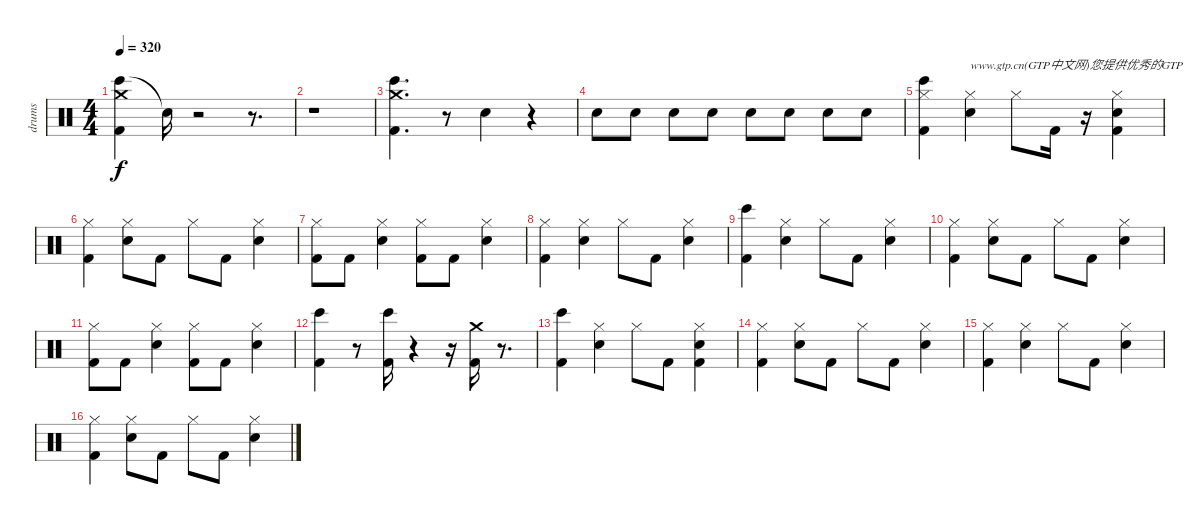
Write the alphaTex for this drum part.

\track ("drums" "drums") {instrument percussion}
\staff {score}
\articulation defaults
\ts (4 4)
\tempo 320
\clef neutral
\ks c
("Bongo High (hit)" "Kick (hit) 2" "Crash medium (hit)").4{dy f} "Snare (hit)"{t}.16 r.2 r.8{d} |
r.1 |
("Bongo High (hit)" "Kick (hit) 2" "Crash medium (hit)").4{d} r.8 "Snare (hit)".4 r.4 |
"Snare (hit) 2".8 "Snare (hit) 2".8 "Snare (hit) 2".8 "Snare (hit) 2".8 "Snare (hit) 2".8 "Snare (hit) 2".8 "Snare (hit) 2".8 "Snare (hit) 2".8 |
("Hi-Hat (closed)" "Bongo High (hit)" "Kick (hit) 2").4 ("Hi-Hat (closed)" "Snare (hit) 2").4{txt "www.gtp.cn(GTP中文网)您提供优秀的GTP"} "Hi-Hat (closed)".8 "Kick (hit) 2".16 r.16 ("Hi-Hat (closed)" "Kick (hit) 2" "Snare (hit) 2").4 |
("Hi-Hat (closed)" "Kick (hit) 2").4 ("Hi-Hat (closed)" "Snare (hit) 2").8 "Kick (hit) 2".8 "Hi-Hat (closed)".8 "Kick (hit) 2".8 ("Hi-Hat (closed)" "Snare (hit) 2").4 |
("Hi-Hat (closed)" "Kick (hit) 2").8 "Kick (hit) 2".8 ("Hi-Hat (closed)" "Snare (hit) 2").4 ("Hi-Hat (closed)" "Kick (hit) 2").8 "Kick (hit) 2".8 ("Hi-Hat (closed)" "Snare (hit) 2").4 |
("Hi-Hat (closed)" "Kick (hit) 2").4 ("Hi-Hat (closed)" "Snare (hit) 2").4 "Hi-Hat (closed)".8 "Kick (hit) 2".8 ("Hi-Hat (closed)" "Snare (hit) 2").4 |
("Bongo High (hit)" "Kick (hit) 2").4 ("Hi-Hat (closed)" "Snare (hit) 2").4 "Hi-Hat (closed)".8 "Kick (hit) 2".8 ("Hi-Hat (closed)" "Snare (hit) 2").4 |
("Hi-Hat (closed)" "Kick (hit) 2").4 ("Hi-Hat (closed)" "Snare (hit) 2").8 "Kick (hit) 2".8 "Hi-Hat (closed)".8 "Kick (hit) 2".8 ("Hi-Hat (closed)" "Snare (hit) 2").4 |
("Hi-Hat (closed)" "Kick (hit) 2").8 "Kick (hit) 2".8 ("Hi-Hat (closed)" "Snare (hit) 2").4 ("Hi-Hat (closed)" "Kick (hit) 2").8 "Kick (hit) 2".8 ("Hi-Hat (closed)" "Snare (hit) 2").4 |
("Bongo High (hit)" "Kick (hit) 2").4 r.8 ("Bongo High (hit)" "Kick (hit) 2").16 r.4 r.16 ("Kick (hit) 2" "Crash medium (hit)").16 r.8{d} |
("Bongo High (hit)" "Kick (hit) 2").4 ("Hi-Hat (closed)" "Snare (hit) 2").4 "Hi-Hat (closed)".8 "Kick (hit) 2".8 ("Hi-Hat (closed)" "Kick (hit) 2" "Snare (hit) 2").4 |
("Hi-Hat (closed)" "Kick (hit) 2").4 ("Hi-Hat (closed)" "Snare (hit) 2").8 "Kick (hit) 2".8 "Hi-Hat (closed)".8 "Kick (hit) 2".8 ("Hi-Hat (closed)" "Snare (hit) 2").4 |
("Hi-Hat (closed)" "Kick (hit) 2").4 ("Hi-Hat (closed)" "Snare (hit) 2").4 "Hi-Hat (closed)".8 "Kick (hit) 2".8 ("Hi-Hat (closed)" "Snare (hit) 2").4 |
("Hi-Hat (closed)" "Kick (hit) 2").4 ("Hi-Hat (closed)" "Snare (hit) 2").8 "Kick (hit) 2".8 "Hi-Hat (closed)".8 "Kick (hit) 2".8 ("Hi-Hat (closed)" "Snare (hit) 2").4
